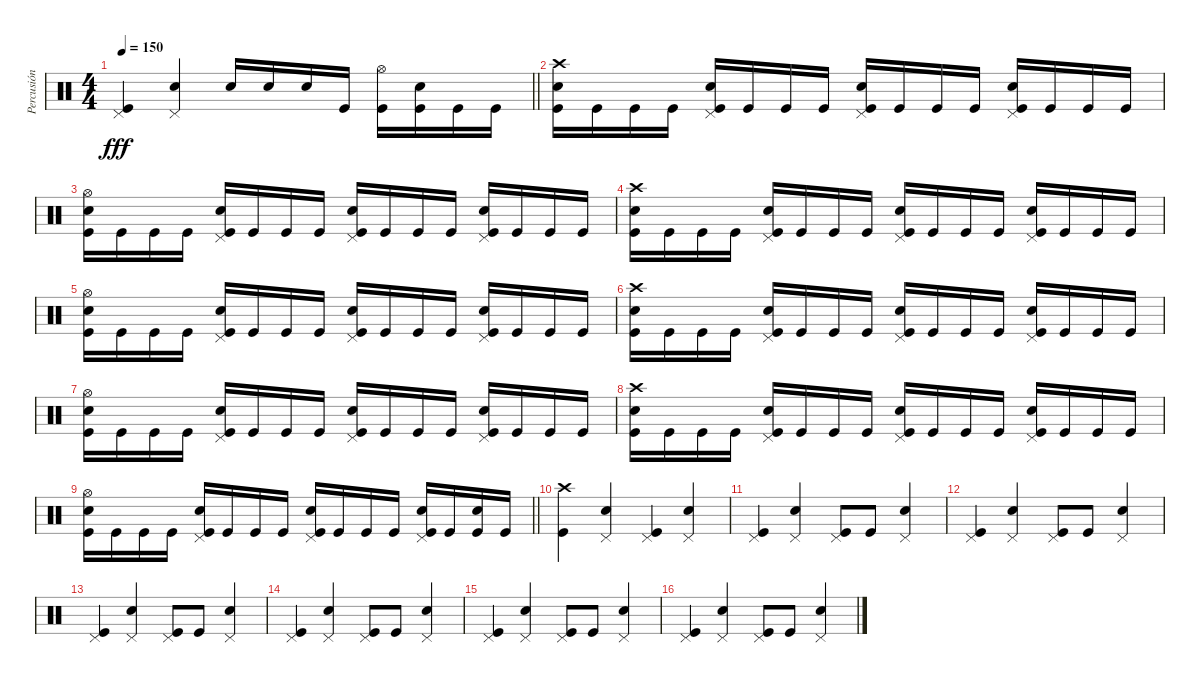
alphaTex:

\track ("Percusión" "Percusión") {instrument percussion}
\staff {score}
\articulation defaults
\ts (4 4)
\tempo 150
\clef neutral
\barLineRight lightlight
\ks c
("Pedal Hi-Hat (hit)" "Kick (hit)").4{dy fff} ("Pedal Hi-Hat (hit)" "Electric Snare (hit)").4 "Electric Snare (hit)".16 "Electric Snare (hit)".16 "Electric Snare (hit)".16 "Kick (hit)".16 ("Hi-Hat (open)" "Kick (hit)").16 ("Electric Snare (hit)" "Kick (hit)").16 "Kick (hit)".16 "Kick (hit)".16 |
("Crash high (hit)" "Electric Snare (hit)" "Kick (hit)").16 "Kick (hit)".16 "Kick (hit)".16 "Kick (hit)".16 ("Pedal Hi-Hat (hit)" "Electric Snare (hit)" "Kick (hit)").16 "Kick (hit)".16 "Kick (hit)".16 "Kick (hit)".16 ("Pedal Hi-Hat (hit)" "Electric Snare (hit)" "Kick (hit)").16 "Kick (hit)".16 "Kick (hit)".16 "Kick (hit)".16 ("Pedal Hi-Hat (hit)" "Electric Snare (hit)" "Kick (hit)").16 "Kick (hit)".16 "Kick (hit)".16 "Kick (hit)".16 |
("Hi-Hat (open)" "Electric Snare (hit)" "Kick (hit)").16 "Kick (hit)".16 "Kick (hit)".16 "Kick (hit)".16 ("Pedal Hi-Hat (hit)" "Electric Snare (hit)" "Kick (hit)").16 "Kick (hit)".16 "Kick (hit)".16 "Kick (hit)".16 ("Pedal Hi-Hat (hit)" "Electric Snare (hit)" "Kick (hit)").16 "Kick (hit)".16 "Kick (hit)".16 "Kick (hit)".16 ("Pedal Hi-Hat (hit)" "Electric Snare (hit)" "Kick (hit)").16 "Kick (hit)".16 "Kick (hit)".16 "Kick (hit)".16 |
("Crash high (hit)" "Electric Snare (hit)" "Kick (hit)").16 "Kick (hit)".16 "Kick (hit)".16 "Kick (hit)".16 ("Pedal Hi-Hat (hit)" "Electric Snare (hit)" "Kick (hit)").16 "Kick (hit)".16 "Kick (hit)".16 "Kick (hit)".16 ("Pedal Hi-Hat (hit)" "Electric Snare (hit)" "Kick (hit)").16 "Kick (hit)".16 "Kick (hit)".16 "Kick (hit)".16 ("Pedal Hi-Hat (hit)" "Electric Snare (hit)" "Kick (hit)").16 "Kick (hit)".16 "Kick (hit)".16 "Kick (hit)".16 |
("Hi-Hat (open)" "Electric Snare (hit)" "Kick (hit)").16 "Kick (hit)".16 "Kick (hit)".16 "Kick (hit)".16 ("Pedal Hi-Hat (hit)" "Electric Snare (hit)" "Kick (hit)").16 "Kick (hit)".16 "Kick (hit)".16 "Kick (hit)".16 ("Pedal Hi-Hat (hit)" "Electric Snare (hit)" "Kick (hit)").16 "Kick (hit)".16 "Kick (hit)".16 "Kick (hit)".16 ("Pedal Hi-Hat (hit)" "Electric Snare (hit)" "Kick (hit)").16 "Kick (hit)".16 "Kick (hit)".16 "Kick (hit)".16 |
("Crash high (hit)" "Electric Snare (hit)" "Kick (hit)").16 "Kick (hit)".16 "Kick (hit)".16 "Kick (hit)".16 ("Pedal Hi-Hat (hit)" "Electric Snare (hit)" "Kick (hit)").16 "Kick (hit)".16 "Kick (hit)".16 "Kick (hit)".16 ("Pedal Hi-Hat (hit)" "Electric Snare (hit)" "Kick (hit)").16 "Kick (hit)".16 "Kick (hit)".16 "Kick (hit)".16 ("Pedal Hi-Hat (hit)" "Electric Snare (hit)" "Kick (hit)").16 "Kick (hit)".16 "Kick (hit)".16 "Kick (hit)".16 |
("Hi-Hat (open)" "Electric Snare (hit)" "Kick (hit)").16 "Kick (hit)".16 "Kick (hit)".16 "Kick (hit)".16 ("Pedal Hi-Hat (hit)" "Electric Snare (hit)" "Kick (hit)").16 "Kick (hit)".16 "Kick (hit)".16 "Kick (hit)".16 ("Pedal Hi-Hat (hit)" "Electric Snare (hit)" "Kick (hit)").16 "Kick (hit)".16 "Kick (hit)".16 "Kick (hit)".16 ("Pedal Hi-Hat (hit)" "Electric Snare (hit)" "Kick (hit)").16 "Kick (hit)".16 "Kick (hit)".16 "Kick (hit)".16 |
("Crash high (hit)" "Electric Snare (hit)" "Kick (hit)").16 "Kick (hit)".16 "Kick (hit)".16 "Kick (hit)".16 ("Pedal Hi-Hat (hit)" "Electric Snare (hit)" "Kick (hit)").16 "Kick (hit)".16 "Kick (hit)".16 "Kick (hit)".16 ("Pedal Hi-Hat (hit)" "Electric Snare (hit)" "Kick (hit)").16 "Kick (hit)".16 "Kick (hit)".16 "Kick (hit)".16 ("Pedal Hi-Hat (hit)" "Electric Snare (hit)" "Kick (hit)").16 "Kick (hit)".16 "Kick (hit)".16 "Kick (hit)".16 |
\barLineRight lightlight
("Hi-Hat (open)" "Electric Snare (hit)" "Kick (hit)").16 "Kick (hit)".16 "Kick (hit)".16 "Kick (hit)".16 ("Pedal Hi-Hat (hit)" "Electric Snare (hit)" "Kick (hit)").16 "Kick (hit)".16 "Kick (hit)".16 "Kick (hit)".16 ("Pedal Hi-Hat (hit)" "Electric Snare (hit)" "Kick (hit)").16 "Kick (hit)".16 "Kick (hit)".16 "Kick (hit)".16 ("Pedal Hi-Hat (hit)" "Electric Snare (hit)" "Kick (hit)").16 "Kick (hit)".16 ("Electric Snare (hit)" "Kick (hit)").16 "Kick (hit)".16 |
("Crash high (hit)" "Kick (hit)").4 ("Pedal Hi-Hat (hit)" "Electric Snare (hit)").4 ("Pedal Hi-Hat (hit)" "Kick (hit)").4 ("Pedal Hi-Hat (hit)" "Electric Snare (hit)").4 |
("Pedal Hi-Hat (hit)" "Kick (hit)").4 ("Pedal Hi-Hat (hit)" "Electric Snare (hit)").4 ("Pedal Hi-Hat (hit)" "Kick (hit)").8 "Kick (hit)".8 ("Pedal Hi-Hat (hit)" "Electric Snare (hit)").4 |
("Pedal Hi-Hat (hit)" "Kick (hit)").4 ("Pedal Hi-Hat (hit)" "Electric Snare (hit)").4 ("Pedal Hi-Hat (hit)" "Kick (hit)").8 "Kick (hit)".8 ("Pedal Hi-Hat (hit)" "Electric Snare (hit)").4 |
("Pedal Hi-Hat (hit)" "Kick (hit)").4 ("Pedal Hi-Hat (hit)" "Electric Snare (hit)").4 ("Pedal Hi-Hat (hit)" "Kick (hit)").8 "Kick (hit)".8 ("Pedal Hi-Hat (hit)" "Electric Snare (hit)").4 |
("Pedal Hi-Hat (hit)" "Kick (hit)").4 ("Pedal Hi-Hat (hit)" "Electric Snare (hit)").4 ("Pedal Hi-Hat (hit)" "Kick (hit)").8 "Kick (hit)".8 ("Pedal Hi-Hat (hit)" "Electric Snare (hit)").4 |
("Pedal Hi-Hat (hit)" "Kick (hit)").4 ("Pedal Hi-Hat (hit)" "Electric Snare (hit)").4 ("Pedal Hi-Hat (hit)" "Kick (hit)").8 "Kick (hit)".8 ("Pedal Hi-Hat (hit)" "Electric Snare (hit)").4 |
("Pedal Hi-Hat (hit)" "Kick (hit)").4 ("Pedal Hi-Hat (hit)" "Electric Snare (hit)").4 ("Pedal Hi-Hat (hit)" "Kick (hit)").8 "Kick (hit)".8 ("Pedal Hi-Hat (hit)" "Electric Snare (hit)").4
